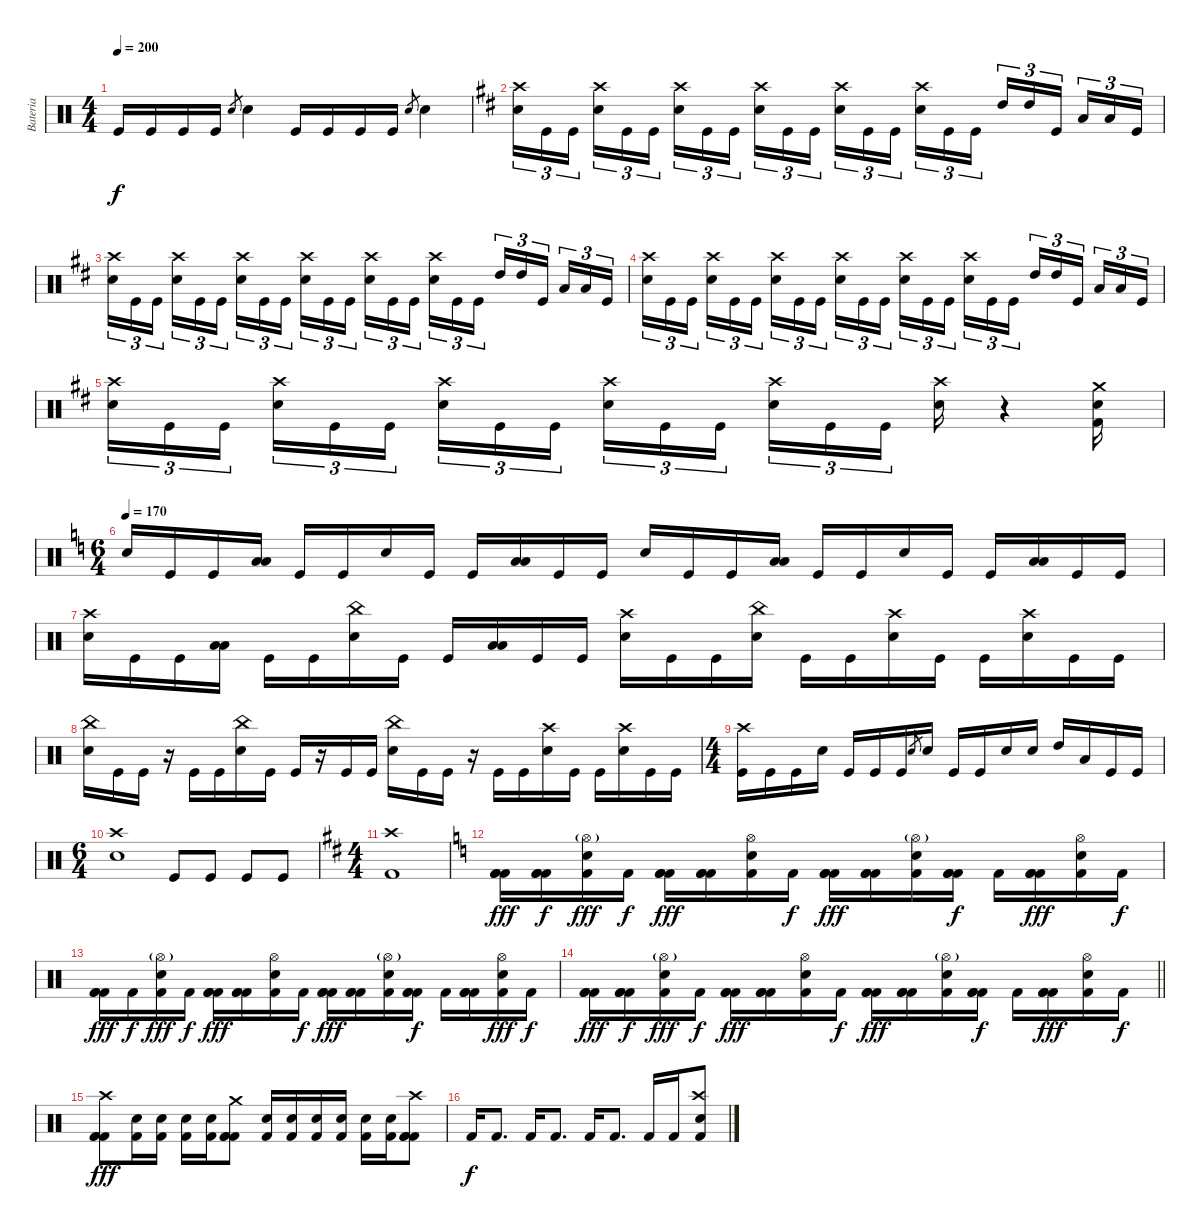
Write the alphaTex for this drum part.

\track ("Bateria" "Bateria") {instrument percussion}
\staff {score}
\articulation defaults
\ts (4 4)
\tempo 200
\clef neutral
\ks c "Kick (hit)".16{dy f} "Kick (hit)".16 "Kick (hit)".16 "Kick (hit)".16 "Snare (hit) 2".8{gr} "Snare (hit) 2".4 "Kick (hit)".16 "Kick (hit)".16 "Kick (hit)".16 "Kick (hit)".16 "Snare (hit) 2".8{gr} "Snare (hit) 2".4
|
\ks d
("Snare (hit) 2" "Crash high (hit)").16{tu (3 2)} "Kick (hit)".16{tu (3 2)} "Kick (hit)".16{tu (3 2) beam splitsecondary} ("Snare (hit) 2" "Crash high (hit)").16{tu (3 2)} "Kick (hit)".16{tu (3 2)} "Kick (hit)".16{tu (3 2)} ("Snare (hit) 2" "Crash high (hit)").16{tu (3 2)} "Kick (hit)".16{tu (3 2)} "Kick (hit)".16{tu (3 2) beam splitsecondary} ("Snare (hit) 2" "Crash high (hit)").16{tu (3 2)} "Kick (hit)".16{tu (3 2)} "Kick (hit)".16{tu (3 2)} ("Snare (hit) 2" "Crash high (hit)").16{tu (3 2)} "Kick (hit)".16{tu (3 2)} "Kick (hit)".16{tu (3 2) beam splitsecondary} ("Snare (hit) 2" "Crash high (hit)").16{tu (3 2)} "Kick (hit)".16{tu (3 2)} "Kick (hit)".16{tu (3 2)} "High Tom (hit)".16{tu (3 2)} "High Tom (hit)".16{tu (3 2)} "Kick (hit)".16{tu (3 2) beam splitsecondary} "Low Tom (hit)".16{tu (3 2)} "Low Tom (hit)".16{tu (3 2)} "Kick (hit)".16{tu (3 2)} |
("Snare (hit) 2" "Crash high (hit)").16{tu (3 2)} "Kick (hit)".16{tu (3 2)} "Kick (hit)".16{tu (3 2) beam splitsecondary} ("Snare (hit) 2" "Crash high (hit)").16{tu (3 2)} "Kick (hit)".16{tu (3 2)} "Kick (hit)".16{tu (3 2)} ("Snare (hit) 2" "Crash high (hit)").16{tu (3 2)} "Kick (hit)".16{tu (3 2)} "Kick (hit)".16{tu (3 2) beam splitsecondary} ("Snare (hit) 2" "Crash high (hit)").16{tu (3 2)} "Kick (hit)".16{tu (3 2)} "Kick (hit)".16{tu (3 2)} ("Snare (hit) 2" "Crash high (hit)").16{tu (3 2)} "Kick (hit)".16{tu (3 2)} "Kick (hit)".16{tu (3 2) beam splitsecondary} ("Snare (hit) 2" "Crash high (hit)").16{tu (3 2)} "Kick (hit)".16{tu (3 2)} "Kick (hit)".16{tu (3 2)} "High Tom (hit)".16{tu (3 2)} "High Tom (hit)".16{tu (3 2)} "Kick (hit)".16{tu (3 2) beam splitsecondary} "Low Tom (hit)".16{tu (3 2)} "Low Tom (hit)".16{tu (3 2)} "Kick (hit)".16{tu (3 2)} |
("Snare (hit) 2" "Crash high (hit)").16{tu (3 2)} "Kick (hit)".16{tu (3 2)} "Kick (hit)".16{tu (3 2) beam splitsecondary} ("Snare (hit) 2" "Crash high (hit)").16{tu (3 2)} "Kick (hit)".16{tu (3 2)} "Kick (hit)".16{tu (3 2)} ("Snare (hit) 2" "Crash high (hit)").16{tu (3 2)} "Kick (hit)".16{tu (3 2)} "Kick (hit)".16{tu (3 2) beam splitsecondary} ("Snare (hit) 2" "Crash high (hit)").16{tu (3 2)} "Kick (hit)".16{tu (3 2)} "Kick (hit)".16{tu (3 2)} ("Snare (hit) 2" "Crash high (hit)").16{tu (3 2)} "Kick (hit)".16{tu (3 2)} "Kick (hit)".16{tu (3 2) beam splitsecondary} ("Snare (hit) 2" "Crash high (hit)").16{tu (3 2)} "Kick (hit)".16{tu (3 2)} "Kick (hit)".16{tu (3 2)} "High Tom (hit)".16{tu (3 2)} "High Tom (hit)".16{tu (3 2)} "Kick (hit)".16{tu (3 2) beam splitsecondary} "Low Tom (hit)".16{tu (3 2)} "Low Tom (hit)".16{tu (3 2)} "Kick (hit)".16{tu (3 2)} |
("Snare (hit) 2" "Crash high (hit)").16{tu (3 2)} "Kick (hit)".16{tu (3 2)} "Kick (hit)".16{tu (3 2) beam splitsecondary} ("Snare (hit) 2" "Crash high (hit)").16{tu (3 2)} "Kick (hit)".16{tu (3 2)} "Kick (hit)".16{tu (3 2)} ("Snare (hit) 2" "Crash high (hit)").16{tu (3 2)} "Kick (hit)".16{tu (3 2)} "Kick (hit)".16{tu (3 2) beam splitsecondary} ("Snare (hit) 2" "Crash high (hit)").16{tu (3 2)} "Kick (hit)".16{tu (3 2)} "Kick (hit)".16{tu (3 2)} ("Snare (hit) 2" "Crash high (hit)").16{tu (3 2)} "Kick (hit)".16{tu (3 2)} "Kick (hit)".16{tu (3 2) beam splitsecondary} ("Snare (hit) 2" "Crash high (hit)").16 r.4 ("Crash medium (hit)" "Kick (hit) 2" "Electric Snare (hit)").16 |
\ts (6 4)
\tempo 170
\ks c "Snare (hit) 2".16 "Kick (hit)".16 "Kick (hit)".16
("Low Floor Tom (hit)" "Low Tom (hit)").16 "Kick (hit)".16 "Kick (hit)".16 "Snare (hit) 2".16 "Kick (hit)".16 "Kick (hit)".16 ("Low Floor Tom (hit)" "Low Tom (hit)").16 "Kick (hit)".16 "Kick (hit)".16 "Snare (hit) 2".16 "Kick (hit)".16 "Kick (hit)".16 ("Low Floor Tom (hit)" "Low Tom (hit)").16 "Kick (hit)".16 "Kick (hit)".16 "Snare (hit) 2".16 "Kick (hit)".16 "Kick (hit)".16 ("Low Floor Tom (hit)" "Low Tom (hit)").16 "Kick (hit)".16 "Kick (hit)".16 |
("Snare (hit) 2" "Crash high (hit)").16 "Kick (hit)".16 "Kick (hit)".16 ("Low Floor Tom (hit)" "Low Tom (hit)").16 "Kick (hit)".16 "Kick (hit)".16 ("Snare (hit) 2" "China (hit)").16 "Kick (hit)".16 "Kick (hit)".16 ("Low Floor Tom (hit)" "Low Tom (hit)").16 "Kick (hit)".16 "Kick (hit)".16 ("Snare (hit) 2" "Crash high (hit)").16 "Kick (hit)".16 "Kick (hit)".16 ("China (hit)" "Snare (hit) 2").16 "Kick (hit)".16 "Kick (hit)".16 ("Snare (hit) 2" "Crash high (hit)").16 "Kick (hit)".16 "Kick (hit)".16 ("Snare (hit) 2" "Crash high (hit)").16 "Kick (hit)".16 "Kick (hit)".16 |
("Snare (hit) 2" "China (hit)").16 "Kick (hit)".16 "Kick (hit)".16 r.16 "Kick (hit)".16 "Kick (hit)".16 ("Snare (hit) 2" "China (hit)").16 "Kick (hit)".16 "Kick (hit)".16 r.16 "Kick (hit)".16 "Kick (hit)".16 ("Snare (hit) 2" "China (hit)").16 "Kick (hit)".16 "Kick (hit)".16 r.16 "Kick (hit)".16 "Kick (hit)".16 ("Snare (hit) 2" "Crash high (hit)").16 "Kick (hit)".16 "Kick (hit)".16 ("Crash high (hit)" "Snare (hit) 2").16 "Kick (hit)".16 "Kick (hit)".16 |
\ts (4 4)
("Kick (hit)" "Crash high (hit)").16 "Kick (hit)".16 "Kick (hit)".16 "Snare (hit) 2".16 "Kick (hit)".16 "Kick (hit)".16 "Kick (hit)".16 "Snare (hit) 2".8{gr} "Snare (hit) 2".16 "Kick (hit)".16 "Kick (hit)".16 "Snare (hit) 2".16 "Snare (hit) 2".16 "High Tom (hit)".16 "Low Tom (hit)".16 "Kick (hit)".16 "Kick (hit)".16 |
\ts (6 4)
("Snare (hit) 2" "Crash high (hit)").1 "Kick (hit)".8 "Kick (hit)".8 "Kick (hit)".8 "Kick (hit)".8 |
\ts (4 4)
\ks d
("Crash high (hit)" "Kick (hit) 2").1 |
\ks c
("Kick (hit) 2" "Kick (hit) 2" "Kick (hit) 2").16{dy fff} ("Kick (hit) 2" "Kick (hit) 2" "Kick (hit) 2").16{dy f} ("Hi-Hat (open)"{g} "Kick (hit) 2" "Electric Snare (hit)").16{dy fff} "Kick (hit) 2".16{dy f} ("Kick (hit) 2" "Kick (hit) 2" "Kick (hit) 2").16{dy fff} ("Kick (hit) 2" "Kick (hit) 2" "Kick (hit) 2").16 ("Hi-Hat (open)" "Kick (hit) 2" "Electric Snare (hit)").16 "Kick (hit) 2".16{dy f} ("Kick (hit) 2" "Kick (hit) 2" "Kick (hit) 2").16{dy fff} ("Kick (hit) 2" "Kick (hit) 2" "Kick (hit) 2").16 ("Hi-Hat (open)"{g} "Kick (hit) 2" "Electric Snare (hit)").16 ("Kick (hit) 2" "Kick (hit) 2" "Kick (hit) 2").16{dy f} "Kick (hit) 2".16 ("Kick (hit) 2" "Kick (hit) 2" "Kick (hit) 2").16{dy fff} ("Hi-Hat (open)" "Kick (hit) 2" "Electric Snare (hit)").16 "Kick (hit) 2".16{dy f} |
("Kick (hit) 2" "Kick (hit) 2" "Kick (hit) 2").16{dy fff} "Kick (hit) 2".16{dy f} ("Hi-Hat (open)"{g} "Kick (hit) 2" "Electric Snare (hit)").16{dy fff} "Kick (hit) 2".16{dy f} ("Kick (hit) 2" "Kick (hit) 2" "Kick (hit) 2").16{dy fff} ("Kick (hit) 2" "Kick (hit) 2" "Kick (hit) 2").16 ("Hi-Hat (open)" "Kick (hit) 2" "Electric Snare (hit)").16 "Kick (hit) 2".16{dy f} ("Kick (hit) 2" "Kick (hit) 2" "Kick (hit) 2").16{dy fff} ("Kick (hit) 2" "Kick (hit) 2" "Kick (hit) 2").16 ("Hi-Hat (open)"{g} "Kick (hit) 2" "Electric Snare (hit)").16 ("Kick (hit) 2" "Kick (hit) 2" "Kick (hit) 2").16{dy f} "Kick (hit) 2".16 ("Kick (hit) 2" "Kick (hit) 2" "Kick (hit) 2").16 ("Hi-Hat (open)" "Kick (hit) 2" "Electric Snare (hit)").16{dy fff} "Kick (hit) 2".16{dy f} |
\barLineRight lightlight
("Kick (hit) 2" "Kick (hit) 2" "Kick (hit) 2").16{dy fff} ("Kick (hit) 2" "Kick (hit) 2" "Kick (hit) 2").16{dy f} ("Hi-Hat (open)"{g} "Kick (hit) 2" "Electric Snare (hit)").16{dy fff} "Kick (hit) 2".16{dy f} ("Kick (hit) 2" "Kick (hit) 2" "Kick (hit) 2").16{dy fff} ("Kick (hit) 2" "Kick (hit) 2" "Kick (hit) 2").16 ("Hi-Hat (open)" "Kick (hit) 2" "Electric Snare (hit)").16 "Kick (hit) 2".16{dy f} ("Kick (hit) 2" "Kick (hit) 2" "Kick (hit) 2").16{dy fff} ("Kick (hit) 2" "Kick (hit) 2" "Kick (hit) 2").16 ("Hi-Hat (open)"{g} "Kick (hit) 2" "Electric Snare (hit)").16 ("Kick (hit) 2" "Kick (hit) 2" "Kick (hit) 2").16{dy f} "Kick (hit) 2".16 ("Kick (hit) 2" "Kick (hit) 2" "Kick (hit) 2").16{dy fff} ("Hi-Hat (open)" "Kick (hit) 2" "Electric Snare (hit)").16 "Kick (hit) 2".16{dy f} |
("Crash high (hit)" "Kick (hit) 2" "Kick (hit) 2" "Kick (hit) 2").8{dy fff} ("Kick (hit) 2" "Electric Snare (hit)").16 ("Kick (hit) 2" "Electric Snare (hit)").16 ("Kick (hit) 2" "Electric Snare (hit)").16 ("Kick (hit) 2" "Electric Snare (hit)").16 ("Crash medium (hit)" "Kick (hit) 2" "Kick (hit) 2" "Kick (hit) 2").8 ("Kick (hit) 2" "Electric Snare (hit)").16 ("Kick (hit) 2" "Electric Snare (hit)").16 ("Kick (hit) 2" "Electric Snare (hit)").16 ("Kick (hit) 2" "Electric Snare (hit)").16 ("Kick (hit) 2" "Electric Snare (hit)").16 ("Kick (hit) 2" "Electric Snare (hit)").16 ("Crash high (hit)" "Kick (hit) 2" "Kick (hit) 2" "Kick (hit) 2").8 |
"Kick (hit) 2".16{dy f} "Kick (hit) 2".8{d} "Kick (hit) 2".16 "Kick (hit) 2".8{d} "Kick (hit) 2".16 "Kick (hit) 2".8{d} "Kick (hit) 2".16 "Kick (hit) 2".16 ("Crash high (hit)" "Snare (hit) 2" "Kick (hit) 2").8
